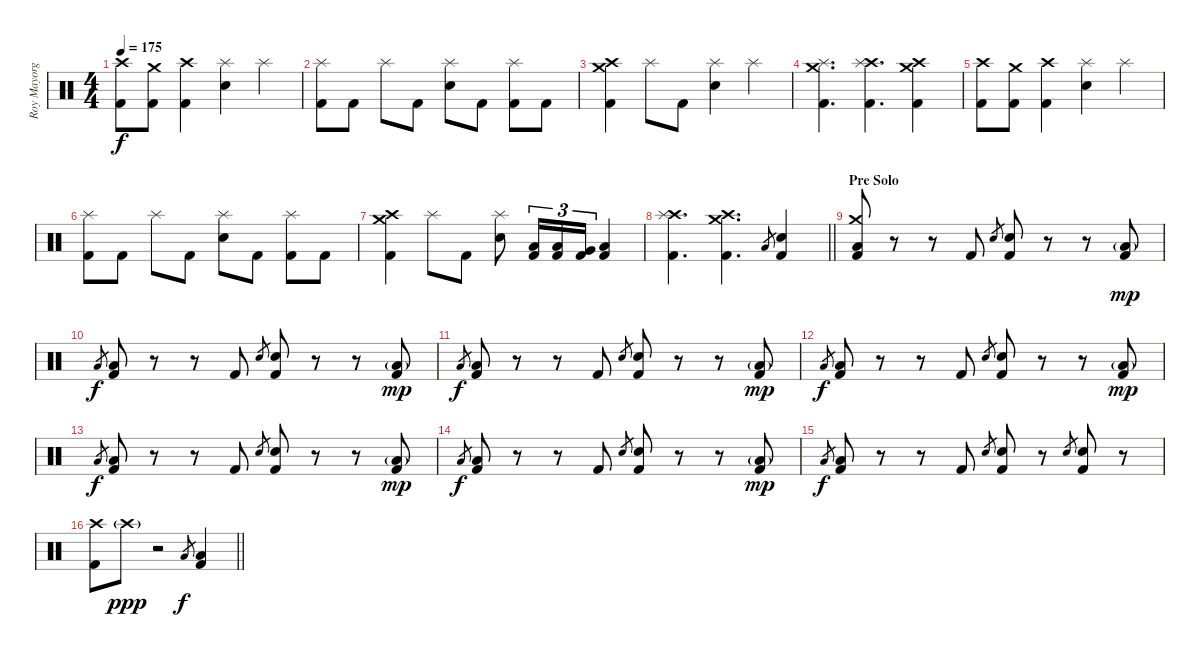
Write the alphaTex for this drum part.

\track ("Roy Mayorga" "Roy Mayorg") {instrument percussion}
\staff {score}
\articulation defaults
\ts (4 4)
\tempo 175
\clef neutral
\ks c
("Crash high (hit)" "Kick (hit) 2").8{dy f} ("Crash medium (hit)" "Kick (hit) 2").8 ("Crash high (hit)" "Kick (hit) 2").4 ("Splash (hit)" "Electric Snare (hit)").4 "Splash (hit)".4 |
("Splash (hit)" "Kick (hit) 2").8 "Kick (hit) 2".8 "Splash (hit)".8 "Kick (hit) 2".8 ("Splash (hit)" "Electric Snare (hit)").8 "Kick (hit) 2".8 ("Splash (hit)" "Kick (hit) 2").8 "Kick (hit) 2".8 |
("Crash high (hit)" "Crash medium (hit)" "Kick (hit) 2").4 "Splash (hit)".8 "Kick (hit) 2".8 ("Splash (hit)" "Electric Snare (hit)").4 "Splash (hit)".4 |
("Crash medium (hit)" "Splash (hit)" "Kick (hit) 2").4{d} ("Crash high (hit)" "Splash (hit)" "Kick (hit) 2").4{d} ("Crash high (hit)" "Crash medium (hit)" "Kick (hit) 2").4 |
("Crash high (hit)" "Kick (hit) 2").8 ("Crash medium (hit)" "Kick (hit) 2").8 ("Crash high (hit)" "Kick (hit) 2").4 ("Splash (hit)" "Electric Snare (hit)").4 "Splash (hit)".4 |
("Splash (hit)" "Kick (hit) 2").8 "Kick (hit) 2".8 "Splash (hit)".8 "Kick (hit) 2".8 ("Splash (hit)" "Electric Snare (hit)").8 "Kick (hit) 2".8 ("Splash (hit)" "Kick (hit) 2").8 "Kick (hit) 2".8 |
("Crash high (hit)" "Crash medium (hit)" "Kick (hit) 2").4 "Splash (hit)".8 "Kick (hit) 2".8 ("Splash (hit)" "Electric Snare (hit)").8 ("Low Tom (hit)" "Kick (hit) 2").16{tu (3 2)} ("Low Tom (hit)" "Kick (hit) 2").16{tu (3 2)} ("Very Low Tom (hit)" "Kick (hit) 2").16{tu (3 2)} ("Low Floor Tom (hit)" "Kick (hit) 2").4 |
\barLineRight lightlight
("Crash high (hit)" "Splash (hit)" "Kick (hit) 2").4{d} ("Crash high (hit)" "Crash medium (hit)" "Kick (hit) 2").4{d} "Low Floor Tom (hit)".8{gr} ("Electric Snare (hit)" "Kick (hit) 2").4 |
\section ("" "Pre Solo")
("Crash medium (hit)" "Low Floor Tom (hit)" "Kick (hit) 2").8 r.8 r.8 "Kick (hit) 2".8 "Electric Snare (hit)".8{gr} ("Electric Snare (hit)" "Kick (hit) 2").8 r.8 r.8 ("Low Floor Tom (hit)"{g} "Kick (hit) 2").8{dy mp} |
"Low Floor Tom (hit)".8{gr dy f} ("Low Floor Tom (hit)" "Kick (hit) 2").8 r.8 r.8 "Kick (hit) 2".8 "Electric Snare (hit)".8{gr} ("Electric Snare (hit)" "Kick (hit) 2").8 r.8 r.8 ("Low Floor Tom (hit)"{g} "Kick (hit) 2").8{dy mp} |
"Low Floor Tom (hit)".8{gr dy f} ("Low Floor Tom (hit)" "Kick (hit) 2").8 r.8 r.8 "Kick (hit) 2".8 "Electric Snare (hit)".8{gr} ("Electric Snare (hit)" "Kick (hit) 2").8 r.8 r.8 ("Low Floor Tom (hit)"{g} "Kick (hit) 2").8{dy mp} |
"Low Floor Tom (hit)".8{gr dy f} ("Low Floor Tom (hit)" "Kick (hit) 2").8 r.8 r.8 "Kick (hit) 2".8 "Electric Snare (hit)".8{gr} ("Electric Snare (hit)" "Kick (hit) 2").8 r.8 r.8 ("Low Floor Tom (hit)"{g} "Kick (hit) 2").8{dy mp} |
"Low Floor Tom (hit)".8{gr dy f} ("Low Floor Tom (hit)" "Kick (hit) 2").8 r.8 r.8 "Kick (hit) 2".8 "Electric Snare (hit)".8{gr} ("Electric Snare (hit)" "Kick (hit) 2").8 r.8 r.8 ("Low Floor Tom (hit)"{g} "Kick (hit) 2").8{dy mp} |
"Low Floor Tom (hit)".8{gr dy f} ("Low Floor Tom (hit)" "Kick (hit) 2").8 r.8 r.8 "Kick (hit) 2".8 "Electric Snare (hit)".8{gr} ("Electric Snare (hit)" "Kick (hit) 2").8 r.8 r.8 ("Low Floor Tom (hit)"{g} "Kick (hit) 2").8{dy mp} |
"Low Floor Tom (hit)".8{gr dy f} ("Low Floor Tom (hit)" "Kick (hit) 2").8 r.8 r.8 "Kick (hit) 2".8 "Electric Snare (hit)".8{gr} ("Electric Snare (hit)" "Kick (hit) 2").8 r.8 "Electric Snare (hit)".8{gr} ("Electric Snare (hit)" "Kick (hit) 2").8 r.8 |
\barLineRight lightlight
("Crash high (hit)" "Kick (hit) 2").8 "Crash high (hit)"{g}.8{dy ppp} r.2 "Low Floor Tom (hit)".8{gr dy f} ("Low Floor Tom (hit)" "Kick (hit) 2").4
